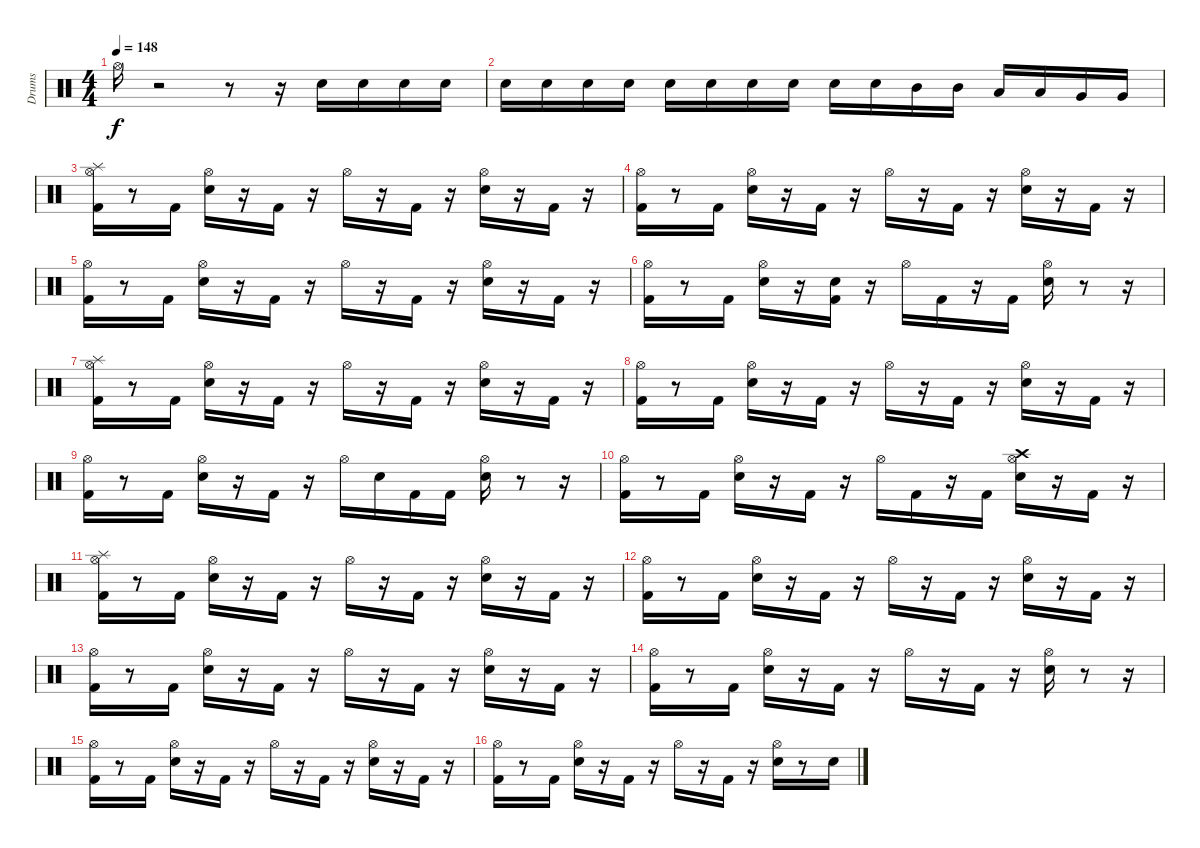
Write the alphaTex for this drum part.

\track ("Drums" "Drums") {instrument percussion}
\staff {score}
\articulation defaults
\ts (4 4)
\tempo 148
\clef neutral
\ks c "Hi-Hat (open)".16{dy f}
r.2 r.8 r.16 "Snare (hit) 2".16 "Snare (hit) 2".16 "Snare (hit) 2".16 "Snare (hit) 2".16 |
"Snare (hit) 2".16 "Snare (hit) 2".16 "Snare (hit) 2".16 "Snare (hit) 2".16 "Snare (hit) 2".16 "Snare (hit) 2".16 "Snare (hit) 2".16 "Snare (hit) 2".16 "Snare (hit) 2".16 "Snare (hit) 2".16 "Mid Tom (hit)".16 "Mid Tom (hit)".16 "Low Tom (hit)".16 "Low Tom (hit)".16 "Very Low Tom (hit)".16 "Very Low Tom (hit)".16 |
("Hi-Hat (open)" "Splash (hit)" "Kick (hit) 2").16 r.8 "Kick (hit) 2".16 ("Hi-Hat (open)" "Snare (hit) 2").16 r.16 "Kick (hit) 2".16 r.16 "Hi-Hat (open)".16 r.16 "Kick (hit) 2".16 r.16 ("Hi-Hat (open)" "Snare (hit) 2").16 r.16 "Kick (hit) 2".16 r.16 |
("Hi-Hat (open)" "Kick (hit) 2").16 r.8 "Kick (hit) 2".16 ("Hi-Hat (open)" "Snare (hit) 2").16 r.16 "Kick (hit) 2".16 r.16 "Hi-Hat (open)".16 r.16 "Kick (hit) 2".16 r.16 ("Hi-Hat (open)" "Snare (hit) 2").16 r.16 "Kick (hit) 2".16 r.16 |
("Hi-Hat (open)" "Kick (hit) 2").16 r.8 "Kick (hit) 2".16 ("Hi-Hat (open)" "Snare (hit) 2").16 r.16 "Kick (hit) 2".16 r.16 "Hi-Hat (open)".16 r.16 "Kick (hit) 2".16 r.16 ("Hi-Hat (open)" "Snare (hit) 2").16 r.16 "Kick (hit) 2".16 r.16 |
("Hi-Hat (open)" "Kick (hit) 2").16 r.8 "Kick (hit) 2".16 ("Hi-Hat (open)" "Snare (hit) 2").16 r.16 ("Kick (hit) 2" "Snare (hit) 2").16 r.16 "Hi-Hat (open)".16 "Kick (hit) 2".16 r.16 "Kick (hit) 2".16 ("Hi-Hat (open)" "Snare (hit) 2").16 r.8 r.16 |
("Hi-Hat (open)" "Splash (hit)" "Kick (hit) 2").16 r.8 "Kick (hit) 2".16 ("Hi-Hat (open)" "Snare (hit) 2").16 r.16 "Kick (hit) 2".16 r.16 "Hi-Hat (open)".16 r.16 "Kick (hit) 2".16 r.16 ("Hi-Hat (open)" "Snare (hit) 2").16 r.16 "Kick (hit) 2".16 r.16 |
("Hi-Hat (open)" "Kick (hit) 2").16 r.8 "Kick (hit) 2".16 ("Hi-Hat (open)" "Snare (hit) 2").16 r.16 "Kick (hit) 2".16 r.16 "Hi-Hat (open)".16 r.16 "Kick (hit) 2".16 r.16 ("Hi-Hat (open)" "Snare (hit) 2").16 r.16 "Kick (hit) 2".16 r.16 |
("Hi-Hat (open)" "Kick (hit) 2").16 r.8 "Kick (hit) 2".16 ("Hi-Hat (open)" "Snare (hit) 2").16 r.16 "Kick (hit) 2".16 r.16 "Hi-Hat (open)".16 "Snare (hit) 2".16 "Kick (hit) 2".16 "Kick (hit) 2".16 ("Hi-Hat (open)" "Snare (hit) 2").16 r.8 r.16 |
("Hi-Hat (open)" "Kick (hit) 2").16 r.8 "Kick (hit) 2".16 ("Hi-Hat (open)" "Snare (hit) 2").16 r.16 "Kick (hit) 2".16 r.16 "Hi-Hat (open)".16 "Kick (hit) 2".16 r.16 "Kick (hit) 2".16 ("Hi-Hat (open)" "Crash high (hit)" "Snare (hit) 2").16 r.16 "Kick (hit) 2".16 r.16 |
("Hi-Hat (open)" "Splash (hit)" "Kick (hit) 2").16 r.8 "Kick (hit) 2".16 ("Hi-Hat (open)" "Snare (hit) 2").16 r.16 "Kick (hit) 2".16 r.16 "Hi-Hat (open)".16 r.16 "Kick (hit) 2".16 r.16 ("Hi-Hat (open)" "Snare (hit) 2").16 r.16 "Kick (hit) 2".16 r.16 |
("Hi-Hat (open)" "Kick (hit) 2").16 r.8 "Kick (hit) 2".16 ("Hi-Hat (open)" "Snare (hit) 2").16 r.16 "Kick (hit) 2".16 r.16 "Hi-Hat (open)".16 r.16 "Kick (hit) 2".16 r.16 ("Hi-Hat (open)" "Snare (hit) 2").16 r.16 "Kick (hit) 2".16 r.16 |
("Hi-Hat (open)" "Kick (hit) 2").16 r.8 "Kick (hit) 2".16 ("Hi-Hat (open)" "Snare (hit) 2").16 r.16 "Kick (hit) 2".16 r.16 "Hi-Hat (open)".16 r.16 "Kick (hit) 2".16 r.16 ("Hi-Hat (open)" "Snare (hit) 2").16 r.16 "Kick (hit) 2".16 r.16 |
("Hi-Hat (open)" "Kick (hit) 2").16 r.8 "Kick (hit) 2".16 ("Hi-Hat (open)" "Snare (hit) 2").16 r.16 "Kick (hit) 2".16 r.16 "Hi-Hat (open)".16 r.16 "Kick (hit) 2".16 r.16 ("Hi-Hat (open)" "Snare (hit) 2").16 r.8 r.16 |
("Hi-Hat (open)" "Kick (hit) 2").16 r.8 "Kick (hit) 2".16 ("Hi-Hat (open)" "Snare (hit) 2").16 r.16 "Kick (hit) 2".16 r.16 "Hi-Hat (open)".16 r.16 "Kick (hit) 2".16 r.16 ("Hi-Hat (open)" "Snare (hit) 2").16 r.16 "Kick (hit) 2".16 r.16 |
("Hi-Hat (open)" "Kick (hit) 2").16 r.8 "Kick (hit) 2".16 ("Hi-Hat (open)" "Snare (hit) 2").16 r.16 "Kick (hit) 2".16 r.16 "Hi-Hat (open)".16 r.16 "Kick (hit) 2".16 r.16 ("Hi-Hat (open)" "Snare (hit) 2").16 r.8 "Snare (hit) 2".16
